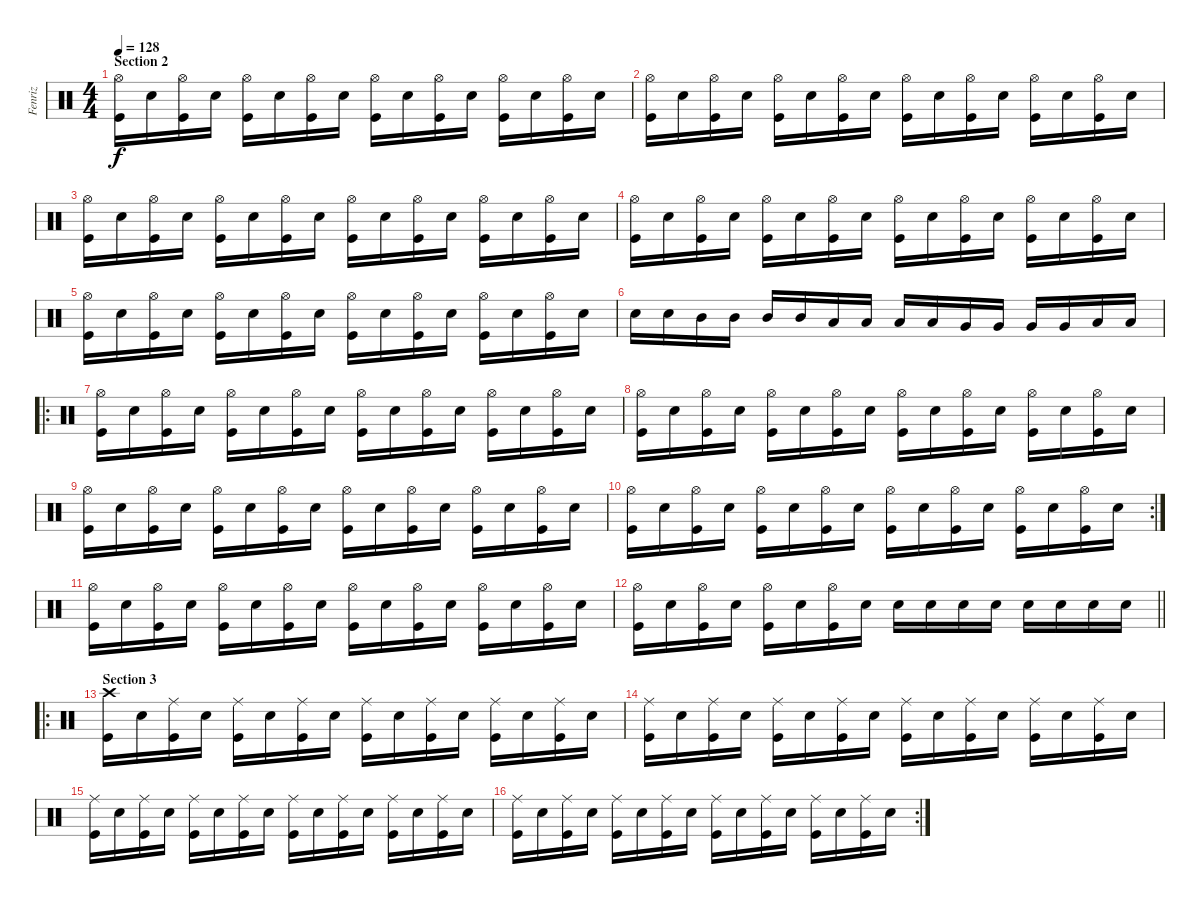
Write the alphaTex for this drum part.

\track ("Fenriz" "Fenriz") {instrument percussion}
\staff {score}
\articulation defaults
\ts (4 4)
\section ("" "Section 2")
\tempo 128
\clef neutral
\ks c
("Hi-Hat (open)" "Kick (hit)").16{dy f} "Snare (hit) 2".16 ("Hi-Hat (open)" "Kick (hit)").16 "Snare (hit) 2".16 ("Hi-Hat (open)" "Kick (hit)").16 "Snare (hit) 2".16 ("Hi-Hat (open)" "Kick (hit)").16 "Snare (hit) 2".16 ("Hi-Hat (open)" "Kick (hit)").16 "Snare (hit) 2".16 ("Hi-Hat (open)" "Kick (hit)").16 "Snare (hit) 2".16 ("Hi-Hat (open)" "Kick (hit)").16 "Snare (hit) 2".16 ("Hi-Hat (open)" "Kick (hit)").16 "Snare (hit) 2".16 |
("Hi-Hat (open)" "Kick (hit)").16 "Snare (hit) 2".16 ("Hi-Hat (open)" "Kick (hit)").16 "Snare (hit) 2".16 ("Hi-Hat (open)" "Kick (hit)").16 "Snare (hit) 2".16 ("Hi-Hat (open)" "Kick (hit)").16 "Snare (hit) 2".16 ("Hi-Hat (open)" "Kick (hit)").16 "Snare (hit) 2".16 ("Hi-Hat (open)" "Kick (hit)").16 "Snare (hit) 2".16 ("Hi-Hat (open)" "Kick (hit)").16 "Snare (hit) 2".16 ("Hi-Hat (open)" "Kick (hit)").16 "Snare (hit) 2".16 |
("Hi-Hat (open)" "Kick (hit)").16 "Snare (hit) 2".16 ("Hi-Hat (open)" "Kick (hit)").16 "Snare (hit) 2".16 ("Hi-Hat (open)" "Kick (hit)").16 "Snare (hit) 2".16 ("Hi-Hat (open)" "Kick (hit)").16 "Snare (hit) 2".16 ("Hi-Hat (open)" "Kick (hit)").16 "Snare (hit) 2".16 ("Hi-Hat (open)" "Kick (hit)").16 "Snare (hit) 2".16 ("Hi-Hat (open)" "Kick (hit)").16 "Snare (hit) 2".16 ("Hi-Hat (open)" "Kick (hit)").16 "Snare (hit) 2".16 |
("Hi-Hat (open)" "Kick (hit)").16 "Snare (hit) 2".16 ("Hi-Hat (open)" "Kick (hit)").16 "Snare (hit) 2".16 ("Hi-Hat (open)" "Kick (hit)").16 "Snare (hit) 2".16 ("Hi-Hat (open)" "Kick (hit)").16 "Snare (hit) 2".16 ("Hi-Hat (open)" "Kick (hit)").16 "Snare (hit) 2".16 ("Hi-Hat (open)" "Kick (hit)").16 "Snare (hit) 2".16 ("Hi-Hat (open)" "Kick (hit)").16 "Snare (hit) 2".16 ("Hi-Hat (open)" "Kick (hit)").16 "Snare (hit) 2".16 |
("Hi-Hat (open)" "Kick (hit)").16 "Snare (hit) 2".16 ("Hi-Hat (open)" "Kick (hit)").16 "Snare (hit) 2".16 ("Hi-Hat (open)" "Kick (hit)").16 "Snare (hit) 2".16 ("Hi-Hat (open)" "Kick (hit)").16 "Snare (hit) 2".16 ("Hi-Hat (open)" "Kick (hit)").16 "Snare (hit) 2".16 ("Hi-Hat (open)" "Kick (hit)").16 "Snare (hit) 2".16 ("Hi-Hat (open)" "Kick (hit)").16 "Snare (hit) 2".16 ("Hi-Hat (open)" "Kick (hit)").16 "Snare (hit) 2".16 |
"Snare (hit) 2".16 "Snare (hit) 2".16 "Mid Tom (hit)".16 "Mid Tom (hit)".16 "Mid Tom (hit)".16 "Mid Tom (hit)".16 "Low Tom (hit)".16 "Low Tom (hit)".16 "Low Tom (hit)".16 "Low Tom (hit)".16 "Very Low Tom (hit)".16 "Very Low Tom (hit)".16 "Very Low Tom (hit)".16 "Very Low Tom (hit)".16 "Low Floor Tom (hit)".16 "Low Floor Tom (hit)".16 |
\ro
("Hi-Hat (open)" "Kick (hit)").16 "Snare (hit) 2".16 ("Hi-Hat (open)" "Kick (hit)").16 "Snare (hit) 2".16 ("Hi-Hat (open)" "Kick (hit)").16 "Snare (hit) 2".16 ("Hi-Hat (open)" "Kick (hit)").16 "Snare (hit) 2".16 ("Hi-Hat (open)" "Kick (hit)").16 "Snare (hit) 2".16 ("Hi-Hat (open)" "Kick (hit)").16 "Snare (hit) 2".16 ("Hi-Hat (open)" "Kick (hit)").16 "Snare (hit) 2".16 ("Hi-Hat (open)" "Kick (hit)").16 "Snare (hit) 2".16 |
("Hi-Hat (open)" "Kick (hit)").16 "Snare (hit) 2".16 ("Hi-Hat (open)" "Kick (hit)").16 "Snare (hit) 2".16 ("Hi-Hat (open)" "Kick (hit)").16 "Snare (hit) 2".16 ("Hi-Hat (open)" "Kick (hit)").16 "Snare (hit) 2".16 ("Hi-Hat (open)" "Kick (hit)").16 "Snare (hit) 2".16 ("Hi-Hat (open)" "Kick (hit)").16 "Snare (hit) 2".16 ("Hi-Hat (open)" "Kick (hit)").16 "Snare (hit) 2".16 ("Hi-Hat (open)" "Kick (hit)").16 "Snare (hit) 2".16 |
("Hi-Hat (open)" "Kick (hit)").16 "Snare (hit) 2".16 ("Hi-Hat (open)" "Kick (hit)").16 "Snare (hit) 2".16 ("Hi-Hat (open)" "Kick (hit)").16 "Snare (hit) 2".16 ("Hi-Hat (open)" "Kick (hit)").16 "Snare (hit) 2".16 ("Hi-Hat (open)" "Kick (hit)").16 "Snare (hit) 2".16 ("Hi-Hat (open)" "Kick (hit)").16 "Snare (hit) 2".16 ("Hi-Hat (open)" "Kick (hit)").16 "Snare (hit) 2".16 ("Hi-Hat (open)" "Kick (hit)").16 "Snare (hit) 2".16 |
\rc 2
("Hi-Hat (open)" "Kick (hit)").16 "Snare (hit) 2".16 ("Hi-Hat (open)" "Kick (hit)").16 "Snare (hit) 2".16 ("Hi-Hat (open)" "Kick (hit)").16 "Snare (hit) 2".16 ("Hi-Hat (open)" "Kick (hit)").16 "Snare (hit) 2".16 ("Hi-Hat (open)" "Kick (hit)").16 "Snare (hit) 2".16 ("Hi-Hat (open)" "Kick (hit)").16 "Snare (hit) 2".16 ("Hi-Hat (open)" "Kick (hit)").16 "Snare (hit) 2".16 ("Hi-Hat (open)" "Kick (hit)").16 "Snare (hit) 2".16 |
("Hi-Hat (open)" "Kick (hit)").16 "Snare (hit) 2".16 ("Hi-Hat (open)" "Kick (hit)").16 "Snare (hit) 2".16 ("Hi-Hat (open)" "Kick (hit)").16 "Snare (hit) 2".16 ("Hi-Hat (open)" "Kick (hit)").16 "Snare (hit) 2".16 ("Hi-Hat (open)" "Kick (hit)").16 "Snare (hit) 2".16 ("Hi-Hat (open)" "Kick (hit)").16 "Snare (hit) 2".16 ("Hi-Hat (open)" "Kick (hit)").16 "Snare (hit) 2".16 ("Hi-Hat (open)" "Kick (hit)").16 "Snare (hit) 2".16 |
\barLineRight lightlight
("Hi-Hat (open)" "Kick (hit)").16 "Snare (hit) 2".16 ("Hi-Hat (open)" "Kick (hit)").16 "Snare (hit) 2".16 ("Hi-Hat (open)" "Kick (hit)").16 "Snare (hit) 2".16 ("Hi-Hat (open)" "Kick (hit)").16 "Snare (hit) 2".16 "Snare (hit) 2".16 "Snare (hit) 2".16 "Snare (hit) 2".16 "Snare (hit) 2".16 "Snare (hit) 2".16 "Snare (hit) 2".16 "Snare (hit) 2".16 "Snare (hit) 2".16 |
\ro
\section ("" "Section 3")
("Crash high (hit)" "Kick (hit)").16 "Snare (hit) 2".16 ("Ride (middle)" "Kick (hit)").16 "Snare (hit) 2".16 ("Ride (middle)" "Kick (hit)").16 "Snare (hit) 2".16 ("Ride (middle)" "Kick (hit)").16 "Snare (hit) 2".16 ("Ride (middle)" "Kick (hit)").16 "Snare (hit) 2".16 ("Ride (middle)" "Kick (hit)").16 "Snare (hit) 2".16 ("Ride (middle)" "Kick (hit)").16 "Snare (hit) 2".16 ("Ride (middle)" "Kick (hit)").16 "Snare (hit) 2".16 |
("Ride (middle)" "Kick (hit)").16 "Snare (hit) 2".16 ("Ride (middle)" "Kick (hit)").16 "Snare (hit) 2".16 ("Ride (middle)" "Kick (hit)").16 "Snare (hit) 2".16 ("Ride (middle)" "Kick (hit)").16 "Snare (hit) 2".16 ("Ride (middle)" "Kick (hit)").16 "Snare (hit) 2".16 ("Ride (middle)" "Kick (hit)").16 "Snare (hit) 2".16 ("Ride (middle)" "Kick (hit)").16 "Snare (hit) 2".16 ("Ride (middle)" "Kick (hit)").16 "Snare (hit) 2".16 |
("Ride (middle)" "Kick (hit)").16 "Snare (hit) 2".16 ("Ride (middle)" "Kick (hit)").16 "Snare (hit) 2".16 ("Ride (middle)" "Kick (hit)").16 "Snare (hit) 2".16 ("Ride (middle)" "Kick (hit)").16 "Snare (hit) 2".16 ("Ride (middle)" "Kick (hit)").16 "Snare (hit) 2".16 ("Ride (middle)" "Kick (hit)").16 "Snare (hit) 2".16 ("Ride (middle)" "Kick (hit)").16 "Snare (hit) 2".16 ("Ride (middle)" "Kick (hit)").16 "Snare (hit) 2".16 |
\rc 2
("Ride (middle)" "Kick (hit)").16 "Snare (hit) 2".16 ("Ride (middle)" "Kick (hit)").16 "Snare (hit) 2".16 ("Ride (middle)" "Kick (hit)").16 "Snare (hit) 2".16 ("Ride (middle)" "Kick (hit)").16 "Snare (hit) 2".16 ("Ride (middle)" "Kick (hit)").16 "Snare (hit) 2".16 ("Ride (middle)" "Kick (hit)").16 "Snare (hit) 2".16 ("Ride (middle)" "Kick (hit)").16 "Snare (hit) 2".16 ("Ride (middle)" "Kick (hit)").16 "Snare (hit) 2".16
